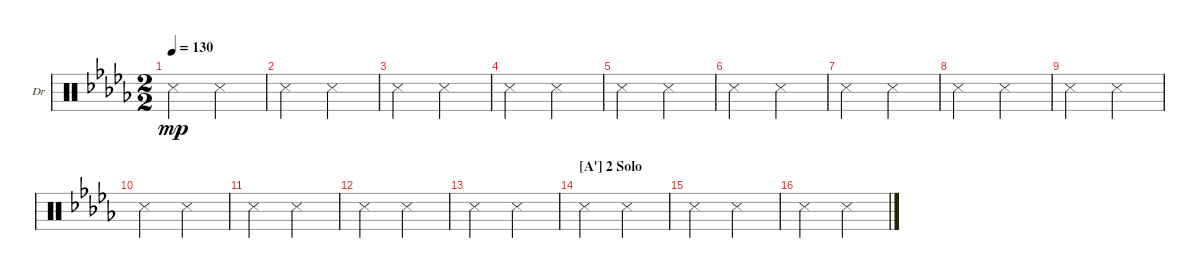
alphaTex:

\defaultSystemsLayout 4
\bracketExtendMode nobrackets
\firstSystemTrackNameOrientation horizontal
\otherSystemsTrackNameOrientation horizontal
\chordDiagramsInScore
\track ("Drums" "Dr") {instrument percussion}
\staff {score}
\articulation defaults
\ts (2 2)
\tempo 130
\clef neutral
\ks db "Snare (side stick) 3".2{dy mp} "Snare (side stick) 3".2
|
"Snare (side stick) 3".2 "Snare (side stick) 3".2 |
"Snare (side stick) 3".2 "Snare (side stick) 3".2 |
"Snare (side stick) 3".2 "Snare (side stick) 3".2 |
"Snare (side stick) 3".2 "Snare (side stick) 3".2 |
"Snare (side stick) 3".2 "Snare (side stick) 3".2 |
"Snare (side stick) 3".2 "Snare (side stick) 3".2 |
"Snare (side stick) 3".2 "Snare (side stick) 3".2 |
"Snare (side stick) 3".2 "Snare (side stick) 3".2 |
"Snare (side stick) 3".2 "Snare (side stick) 3".2 |
"Snare (side stick) 3".2 "Snare (side stick) 3".2 |
"Snare (side stick) 3".2 "Snare (side stick) 3".2 |
"Snare (side stick) 3".2 "Snare (side stick) 3".2 |
\section ("A'" "2 Solo")
"Snare (side stick) 3".2 "Snare (side stick) 3".2 |
"Snare (side stick) 3".2 "Snare (side stick) 3".2 |
"Snare (side stick) 3".2 "Snare (side stick) 3".2
